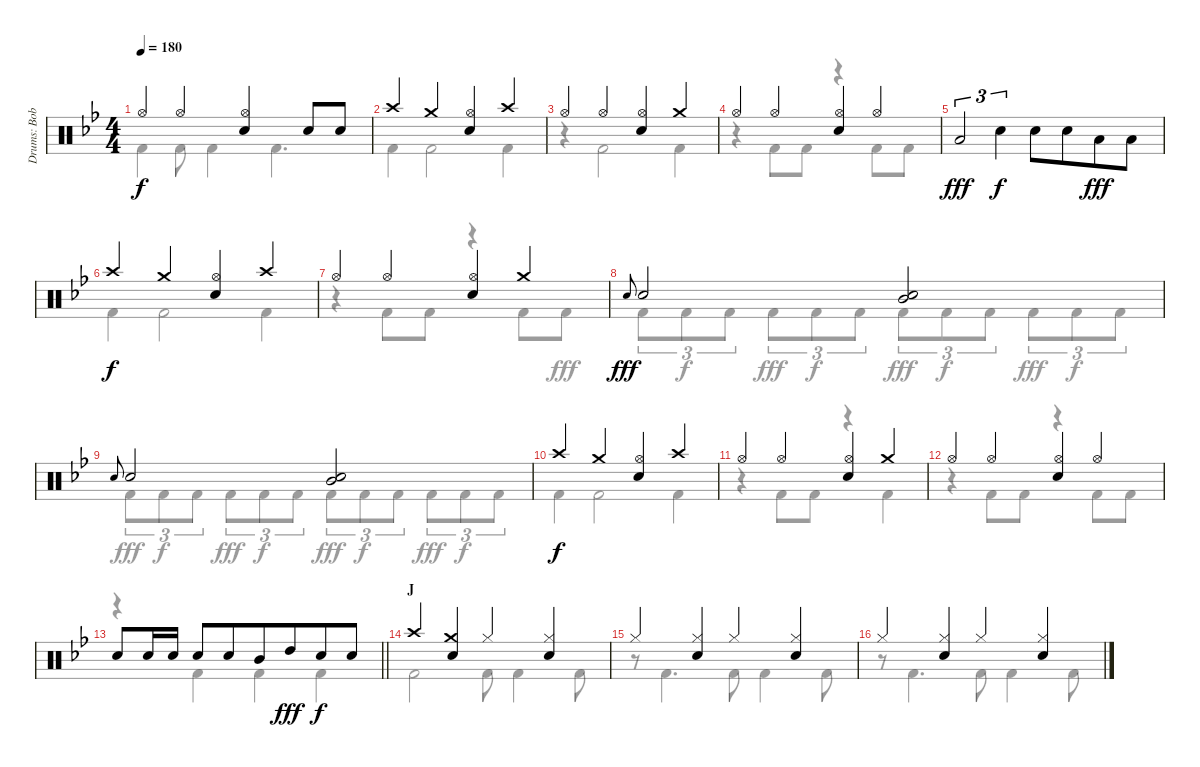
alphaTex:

\track ("Drums: Bobby" "Drums: Bob") {instrument percussion}
\staff {score}
\articulation defaults
\voice
\ts (4 4)
\tempo 180
\clef neutral
\ks bb "Hi-Hat (open)".4{dy f} "Hi-Hat (open)".4
("Hi-Hat (open)" "Snare (hit) 2").4 "Snare (hit) 2".8 "Snare (hit) 2".8 |
"Crash high (hit)".4 "Crash medium (hit)".4 ("Hi-Hat (open)" "Snare (hit) 2").4 "Crash high (hit)".4 |
"Hi-Hat (open)".4 "Hi-Hat (open)".4 ("Hi-Hat (open)" "Snare (hit) 2").4 "Crash medium (hit)".4 |
"Hi-Hat (open)".4 "Hi-Hat (open)".4 ("Hi-Hat (open)" "Snare (hit) 2").4 "Hi-Hat (open)".4 |
"Low Tom (hit)".2{tu (3 2) dy fff} "Snare (hit) 2".4{tu (3 2) dy f} "Snare (hit) 2".8 "Snare (hit) 2".8{beam merge} "Low Tom (hit)".8{dy fff} "Low Tom (hit)".8 |
"Crash high (hit)".4{dy f} "Crash medium (hit)".4 ("Hi-Hat (open)" "Snare (hit) 2").4 "Crash high (hit)".4 |
"Hi-Hat (open)".4 "Hi-Hat (open)".4 ("Hi-Hat (open)" "Snare (hit) 2").4 "Crash medium (hit)".4 |
"Electric Snare (hit)".8{gr onbeat dy fff} "Snare (hit) 2".2 ("Snare (hit) 2" "Mid Tom (hit)").2 |
"Electric Snare (hit)".8{gr onbeat} "Snare (hit) 2".2 ("Snare (hit) 2" "Mid Tom (hit)").2 |
"Crash high (hit)".4{dy f} "Crash medium (hit)".4 ("Hi-Hat (open)" "Snare (hit) 2").4 "Crash high (hit)".4 |
"Hi-Hat (open)".4 "Hi-Hat (open)".4 ("Hi-Hat (open)" "Snare (hit) 2").4 "Crash medium (hit)".4 |
"Hi-Hat (open)".4 "Hi-Hat (open)".4 ("Hi-Hat (open)" "Snare (hit) 2").4 "Hi-Hat (open)".4 |
\barLineRight lightlight "Snare (hit) 2".8 "Snare (hit) 2".16 "Snare (hit) 2".16 "Snare (hit) 2".8 "Snare (hit) 2".8{beam merge} "Mid Tom (hit)".8 "High Tom (hit)".8{dy fff beam merge} "Snare (hit) 2".8{dy f} "Snare (hit) 2".8
|
\section ("" "J")
"Crash high (hit)".4 ("Crash medium (hit)" "Snare (hit) 2").4 "Hi-Hat (closed)".4 ("Hi-Hat (closed)" "Snare (hit) 2").4 |
"Hi-Hat (closed)".4 ("Hi-Hat (closed)" "Snare (hit) 2").4 "Hi-Hat (closed)".4 ("Hi-Hat (closed)" "Snare (hit) 2").4 |
"Hi-Hat (closed)".4 ("Hi-Hat (closed)" "Snare (hit) 2").4 "Hi-Hat (closed)".4 ("Hi-Hat (closed)" "Snare (hit) 2").4
\voice
\clef neutral
\ottava regular
\simile none
\ks bb "Kick (hit) 2".4{dy f} "Kick (hit) 2".8 "Kick (hit) 2".4 "Kick (hit) 2".4{d}
|
"Kick (hit) 2".4 "Kick (hit) 2".2 "Kick (hit) 2".4 |
r.4 "Kick (hit) 2".2 "Kick (hit) 2".4 |
r.4 "Kick (hit) 2".8 "Kick (hit) 2".8 r.4 "Kick (hit) 2".8 "Kick (hit) 2".8 |
|
"Kick (hit) 2".4 "Kick (hit) 2".2 "Kick (hit) 2".4 |
r.4 "Kick (hit) 2".8 "Kick (hit) 2".8 r.4 "Kick (hit) 2".8 "Kick (hit) 2".8{dy fff} |
"Kick (hit) 2".8{tu (3 2)} "Kick (hit) 2".8{tu (3 2) dy f} "Kick (hit) 2".8{tu (3 2)} "Kick (hit) 2".8{tu (3 2) dy fff} "Kick (hit) 2".8{tu (3 2) dy f} "Kick (hit) 2".8{tu (3 2)} "Kick (hit) 2".8{tu (3 2) dy fff} "Kick (hit) 2".8{tu (3 2) dy f} "Kick (hit) 2".8{tu (3 2)} "Kick (hit) 2".8{tu (3 2) dy fff} "Kick (hit) 2".8{tu (3 2) dy f} "Kick (hit) 2".8{tu (3 2)} |
"Kick (hit) 2".8{tu (3 2) dy fff} "Kick (hit) 2".8{tu (3 2) dy f} "Kick (hit) 2".8{tu (3 2)} "Kick (hit) 2".8{tu (3 2) dy fff} "Kick (hit) 2".8{tu (3 2) dy f} "Kick (hit) 2".8{tu (3 2)} "Kick (hit) 2".8{tu (3 2) dy fff} "Kick (hit) 2".8{tu (3 2) dy f} "Kick (hit) 2".8{tu (3 2)} "Kick (hit) 2".8{tu (3 2) dy fff} "Kick (hit) 2".8{tu (3 2) dy f} "Kick (hit) 2".8{tu (3 2)} |
"Kick (hit) 2".4 "Kick (hit) 2".2 "Kick (hit) 2".4 |
r.4 "Kick (hit) 2".8 "Kick (hit) 2".8 r.4 "Kick (hit) 2".4 |
r.4 "Kick (hit) 2".8 "Kick (hit) 2".8 r.4 "Kick (hit) 2".8 "Kick (hit) 2".8 |
\barLineRight lightlight
r.4 "Kick (hit) 2".4 "Kick (hit) 2".4 "Kick (hit) 2".4 |
"Kick (hit) 2".2 "Kick (hit) 2".8 "Kick (hit) 2".4 "Kick (hit) 2".8 |
r.8 "Kick (hit) 2".4{d} "Kick (hit) 2".8 "Kick (hit) 2".4 "Kick (hit) 2".8 |
r.8 "Kick (hit) 2".4{d} "Kick (hit) 2".8 "Kick (hit) 2".4 "Kick (hit) 2".8
